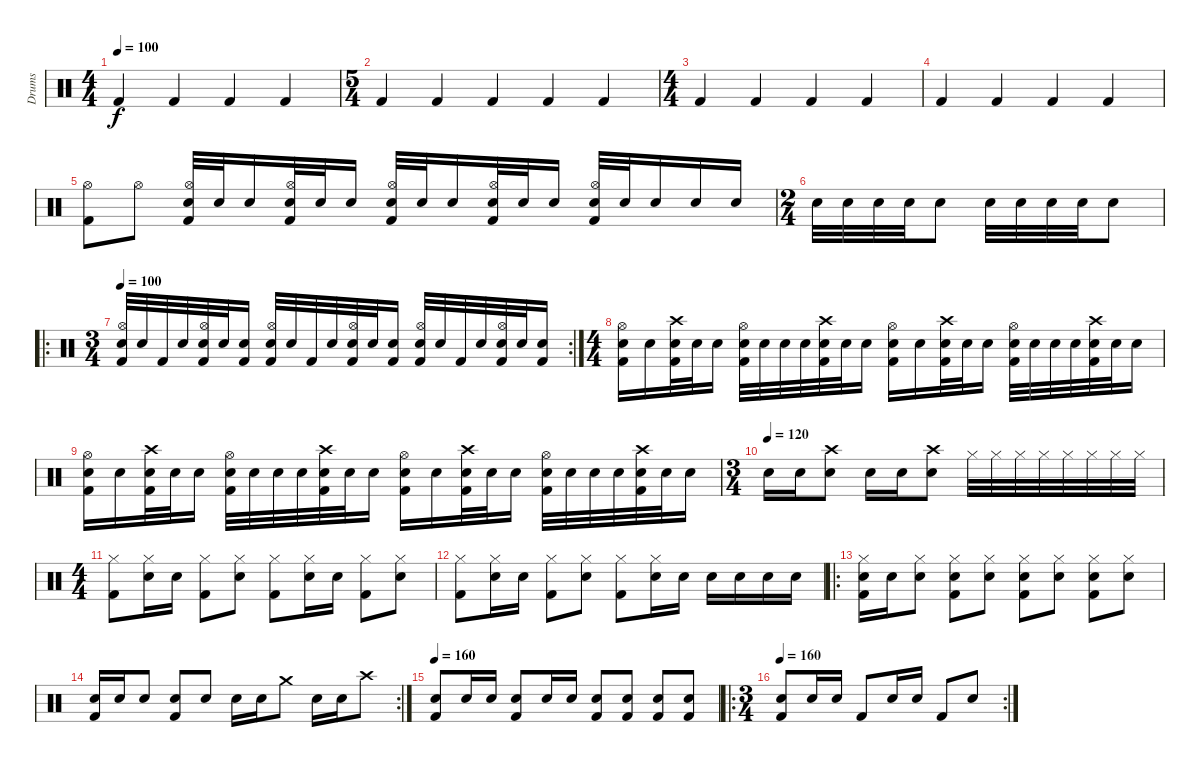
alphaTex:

\track ("Drums" "Drums") {instrument percussion}
\staff {score}
\articulation defaults
\ts (4 4)
\tempo 100
\clef neutral
\ks c "Kick (hit) 2".4{dy f} "Kick (hit) 2".4 "Kick (hit) 2".4 "Kick (hit) 2".4
|
\ts (5 4)
"Kick (hit) 2".4 "Kick (hit) 2".4 "Kick (hit) 2".4 "Kick (hit) 2".4 "Kick (hit) 2".4 |
\ts (4 4)
"Kick (hit) 2".4 "Kick (hit) 2".4 "Kick (hit) 2".4 "Kick (hit) 2".4 |
"Kick (hit) 2".4 "Kick (hit) 2".4 "Kick (hit) 2".4 "Kick (hit) 2".4 |
("Hi-Hat (open)" "Kick (hit) 2").8 "Hi-Hat (open)".8 ("Hi-Hat (open)" "Snare (hit) 2" "Kick (hit) 2").32 "Snare (hit) 2".32 "Snare (hit) 2".16 ("Hi-Hat (open)" "Snare (hit) 2" "Kick (hit) 2").32 "Snare (hit) 2".32 "Snare (hit) 2".16 ("Hi-Hat (open)" "Snare (hit) 2" "Kick (hit) 2").32 "Snare (hit) 2".32 "Snare (hit) 2".16 ("Hi-Hat (open)" "Snare (hit) 2" "Kick (hit) 2").32 "Snare (hit) 2".32 "Snare (hit) 2".16 ("Hi-Hat (open)" "Snare (hit) 2" "Kick (hit) 2").32 "Snare (hit) 2".32 "Snare (hit) 2".16 "Snare (hit) 2".16 "Snare (hit) 2".16 |
\ts (2 4)
"Snare (hit) 2".32 "Snare (hit) 2".32 "Snare (hit) 2".32 "Snare (hit) 2".32 "Snare (hit) 2".8 "Snare (hit) 2".32 "Snare (hit) 2".32 "Snare (hit) 2".32 "Snare (hit) 2".32 "Snare (hit) 2".8 |
\ro
\rc 2
\ts (3 4)
\tempo 100
("Hi-Hat (open)" "Snare (hit) 2" "Kick (hit) 2").32 "Snare (hit) 2".32 "Kick (hit) 2".32 "Snare (hit) 2".32 ("Hi-Hat (open)" "Snare (hit) 2" "Kick (hit) 2").32 "Snare (hit) 2".32 ("Snare (hit) 2" "Kick (hit) 2").16 ("Hi-Hat (open)" "Snare (hit) 2" "Kick (hit) 2").32 "Snare (hit) 2".32 "Kick (hit) 2".32 "Snare (hit) 2".32 ("Hi-Hat (open)" "Snare (hit) 2" "Kick (hit) 2").32 "Snare (hit) 2".32 ("Snare (hit) 2" "Kick (hit) 2").16 ("Hi-Hat (open)" "Snare (hit) 2" "Kick (hit) 2").32 "Snare (hit) 2".32 "Kick (hit) 2".32 "Snare (hit) 2".32 ("Hi-Hat (open)" "Snare (hit) 2" "Kick (hit) 2").32 "Snare (hit) 2".32 ("Snare (hit) 2" "Kick (hit) 2").16 |
\ts (4 4)
("Hi-Hat (open)" "Snare (hit) 2" "Kick (hit) 2").16 "Snare (hit) 2".16 ("Crash high (hit)" "Snare (hit) 2" "Kick (hit) 2").32 "Snare (hit) 2".32 "Snare (hit) 2".16 ("Hi-Hat (open)" "Snare (hit) 2" "Kick (hit) 2").32 "Snare (hit) 2".32 "Snare (hit) 2".32 "Snare (hit) 2".32 ("Crash high (hit)" "Snare (hit) 2" "Kick (hit) 2").32 "Snare (hit) 2".32 "Snare (hit) 2".16 ("Hi-Hat (open)" "Snare (hit) 2" "Kick (hit) 2").16 "Snare (hit) 2".16 ("Crash high (hit)" "Snare (hit) 2" "Kick (hit) 2").32 "Snare (hit) 2".32 "Snare (hit) 2".16 ("Hi-Hat (open)" "Snare (hit) 2" "Kick (hit) 2").32 "Snare (hit) 2".32 "Snare (hit) 2".32 "Snare (hit) 2".32 ("Crash high (hit)" "Snare (hit) 2" "Kick (hit) 2").32 "Snare (hit) 2".32 "Snare (hit) 2".16 |
("Hi-Hat (open)" "Snare (hit) 2" "Kick (hit) 2").16 "Snare (hit) 2".16 ("Crash high (hit)" "Snare (hit) 2" "Kick (hit) 2").32 "Snare (hit) 2".32 "Snare (hit) 2".16 ("Hi-Hat (open)" "Snare (hit) 2" "Kick (hit) 2").32 "Snare (hit) 2".32 "Snare (hit) 2".32 "Snare (hit) 2".32 ("Crash high (hit)" "Snare (hit) 2" "Kick (hit) 2").32 "Snare (hit) 2".32 "Snare (hit) 2".16 ("Hi-Hat (open)" "Snare (hit) 2" "Kick (hit) 2").16 "Snare (hit) 2".16 ("Crash high (hit)" "Snare (hit) 2" "Kick (hit) 2").32 "Snare (hit) 2".32 "Snare (hit) 2".16 ("Hi-Hat (open)" "Snare (hit) 2" "Kick (hit) 2").32 "Snare (hit) 2".32 "Snare (hit) 2".32 "Snare (hit) 2".32 ("Crash high (hit)" "Snare (hit) 2" "Kick (hit) 2").32 "Snare (hit) 2".32 "Snare (hit) 2".16 |
\ts (3 4)
\tempo (120)
"Snare (hit) 2".16 "Snare (hit) 2".16 ("Crash high (hit)" "Snare (hit) 2").8 "Snare (hit) 2".16 "Snare (hit) 2".16 ("Crash high (hit)" "Snare (hit) 2").8 "Hi-Hat (closed)".32 "Hi-Hat (closed)".32 "Hi-Hat (closed)".32 "Hi-Hat (closed)".32 "Hi-Hat (closed)".32 "Hi-Hat (closed)".32 "Hi-Hat (closed)".32 "Hi-Hat (closed)".32 |
\ts (4 4)
("Hi-Hat (closed)" "Kick (hit) 2").8 ("Hi-Hat (closed)" "Snare (hit) 2").16 "Snare (hit) 2".16 ("Hi-Hat (closed)" "Kick (hit) 2").8 ("Hi-Hat (closed)" "Snare (hit) 2").8 ("Hi-Hat (closed)" "Kick (hit) 2").8 ("Hi-Hat (closed)" "Snare (hit) 2").16 "Snare (hit) 2".16 ("Hi-Hat (closed)" "Kick (hit) 2").8 ("Hi-Hat (closed)" "Snare (hit) 2").8 |
("Hi-Hat (closed)" "Kick (hit) 2").8 ("Hi-Hat (closed)" "Snare (hit) 2").16 "Snare (hit) 2".16 ("Hi-Hat (closed)" "Kick (hit) 2").8 ("Hi-Hat (closed)" "Snare (hit) 2").8 ("Hi-Hat (closed)" "Kick (hit) 2").8 ("Hi-Hat (closed)" "Snare (hit) 2").16 "Snare (hit) 2".16 "Snare (hit) 2".16 "Snare (hit) 2".16 "Snare (hit) 2".16 "Snare (hit) 2".16 |
\ro
("Hi-Hat (closed)" "Snare (hit) 2" "Kick (hit) 2").16 "Snare (hit) 2".16 ("Hi-Hat (closed)" "Snare (hit) 2").8 ("Hi-Hat (closed)" "Snare (hit) 2" "Kick (hit) 2").8 ("Hi-Hat (closed)" "Snare (hit) 2").8 ("Hi-Hat (closed)" "Snare (hit) 2" "Kick (hit) 2").8 ("Hi-Hat (closed)" "Snare (hit) 2").8 ("Hi-Hat (closed)" "Snare (hit) 2" "Kick (hit) 2").8 ("Hi-Hat (closed)" "Snare (hit) 2").8 |
\rc 2
("Snare (hit) 2" "Kick (hit) 2").16 "Snare (hit) 2".16 "Snare (hit) 2".8 ("Snare (hit) 2" "Kick (hit) 2").8 "Snare (hit) 2".8 "Snare (hit) 2".16 "Snare (hit) 2".16 "Crash medium (hit)".8 "Snare (hit) 2".16 "Snare (hit) 2".16 "Crash high (hit)".8 |
\tempo 160
("Snare (hit) 2" "Kick (hit) 2").8 "Snare (hit) 2".16 "Snare (hit) 2".16 ("Snare (hit) 2" "Kick (hit) 2").8 "Snare (hit) 2".16 "Snare (hit) 2".16 ("Snare (hit) 2" "Kick (hit) 2").8 ("Snare (hit) 2" "Kick (hit) 2").8 ("Snare (hit) 2" "Kick (hit) 2").8 ("Snare (hit) 2" "Kick (hit) 2").8 |
\ro
\rc 2
\ts (3 4)
\tempo 160
("Snare (hit) 2" "Kick (hit) 2").8 "Snare (hit) 2".16 "Snare (hit) 2".16 "Kick (hit) 2".8 "Snare (hit) 2".16 "Snare (hit) 2".16 "Kick (hit) 2".8 "Snare (hit) 2".8
